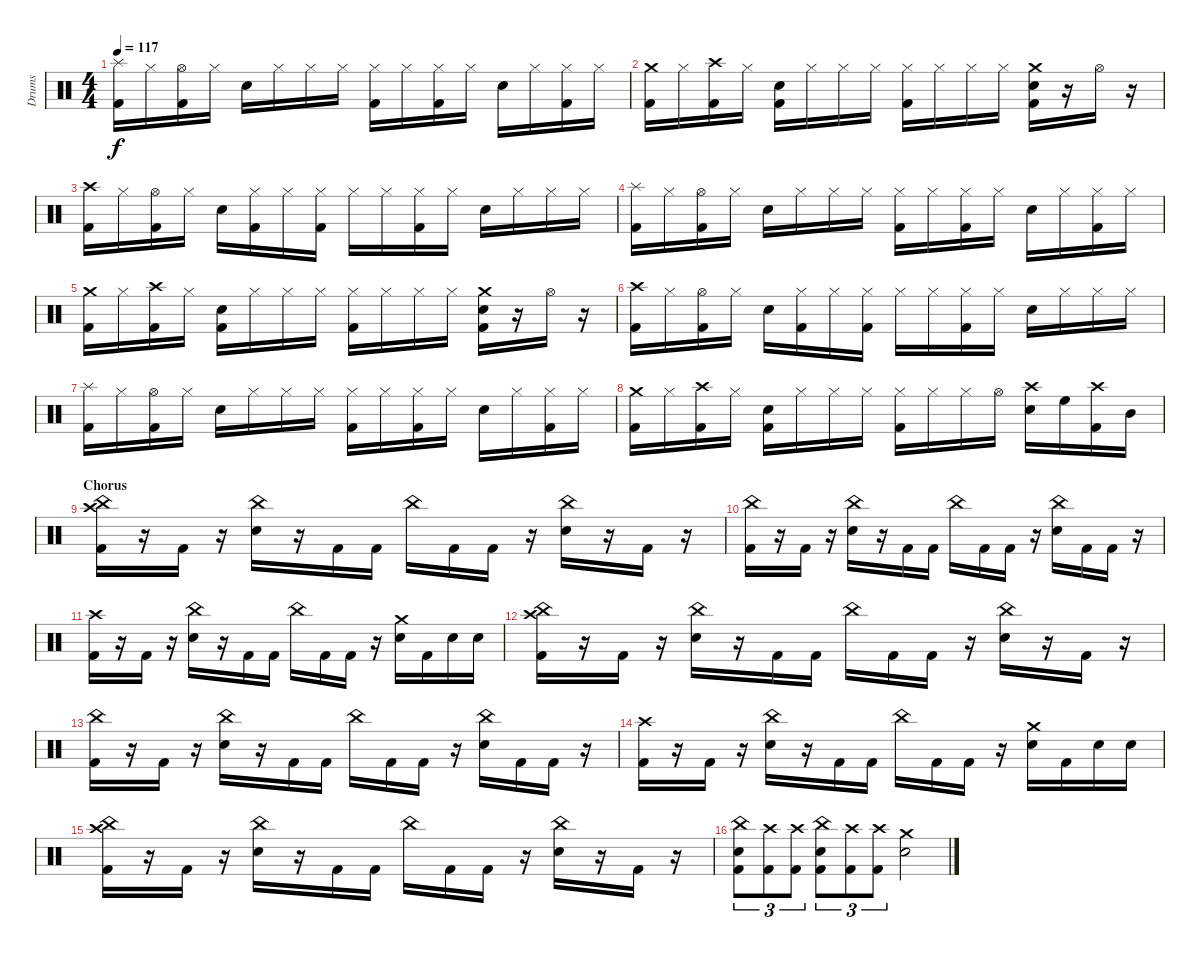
\track ("Drums" "Drums") {instrument percussion}
\staff {score}
\articulation defaults
\ts (4 4)
\tempo 117
\clef neutral
\ks c
("Splash (hit)" "Kick (hit) 2").16{dy f} "Hi-Hat (closed)".16 ("Hi-Hat (open)" "Kick (hit) 2").16 "Hi-Hat (closed)".16 "Electric Snare (hit)".16 "Hi-Hat (closed)".16 "Hi-Hat (closed)".16 "Hi-Hat (closed)".16 ("Hi-Hat (closed)" "Kick (hit) 2").16 "Hi-Hat (closed)".16 ("Hi-Hat (closed)" "Kick (hit) 2").16 "Hi-Hat (closed)".16 "Electric Snare (hit)".16 "Hi-Hat (closed)".16 ("Hi-Hat (closed)" "Kick (hit) 2").16 "Hi-Hat (closed)".16 |
("Crash medium (hit)" "Kick (hit) 2").16 "Hi-Hat (closed)".16 ("Crash high (hit)" "Kick (hit) 2").16 "Hi-Hat (closed)".16 ("Electric Snare (hit)" "Kick (hit) 2").16 "Hi-Hat (closed)".16 "Hi-Hat (closed)".16 "Hi-Hat (closed)".16 ("Hi-Hat (closed)" "Kick (hit) 2").16 "Hi-Hat (closed)".16 "Hi-Hat (closed)".16 "Hi-Hat (closed)".16 ("Crash medium (hit)" "Electric Snare (hit)" "Kick (hit) 2").16 r.16 "Hi-Hat (open)".16 r.16 |
("Crash high (hit)" "Kick (hit) 2").16 "Hi-Hat (closed)".16 ("Hi-Hat (open)" "Kick (hit) 2").16 "Hi-Hat (closed)".16 "Electric Snare (hit)".16 ("Hi-Hat (closed)" "Kick (hit) 2").16 "Hi-Hat (closed)".16 ("Hi-Hat (closed)" "Kick (hit) 2").16 "Hi-Hat (closed)".16 "Hi-Hat (closed)".16 ("Hi-Hat (closed)" "Kick (hit) 2").16 "Hi-Hat (closed)".16 "Electric Snare (hit)".16 "Hi-Hat (closed)".16 "Hi-Hat (closed)".16 "Hi-Hat (closed)".16 |
("Splash (hit)" "Kick (hit) 2").16 "Hi-Hat (closed)".16 ("Hi-Hat (open)" "Kick (hit) 2").16 "Hi-Hat (closed)".16 "Electric Snare (hit)".16 "Hi-Hat (closed)".16 "Hi-Hat (closed)".16 "Hi-Hat (closed)".16 ("Hi-Hat (closed)" "Kick (hit) 2").16 "Hi-Hat (closed)".16 ("Hi-Hat (closed)" "Kick (hit) 2").16 "Hi-Hat (closed)".16 "Electric Snare (hit)".16 "Hi-Hat (closed)".16 ("Hi-Hat (closed)" "Kick (hit) 2").16 "Hi-Hat (closed)".16 |
("Crash medium (hit)" "Kick (hit) 2").16 "Hi-Hat (closed)".16 ("Crash high (hit)" "Kick (hit) 2").16 "Hi-Hat (closed)".16 ("Electric Snare (hit)" "Kick (hit) 2").16 "Hi-Hat (closed)".16 "Hi-Hat (closed)".16 "Hi-Hat (closed)".16 ("Hi-Hat (closed)" "Kick (hit) 2").16 "Hi-Hat (closed)".16 "Hi-Hat (closed)".16 "Hi-Hat (closed)".16 ("Crash medium (hit)" "Electric Snare (hit)" "Kick (hit) 2").16 r.16 "Hi-Hat (open)".16 r.16 |
("Crash high (hit)" "Kick (hit) 2").16 "Hi-Hat (closed)".16 ("Hi-Hat (open)" "Kick (hit) 2").16 "Hi-Hat (closed)".16 "Electric Snare (hit)".16 ("Hi-Hat (closed)" "Kick (hit) 2").16 "Hi-Hat (closed)".16 ("Hi-Hat (closed)" "Kick (hit) 2").16 "Hi-Hat (closed)".16 "Hi-Hat (closed)".16 ("Hi-Hat (closed)" "Kick (hit) 2").16 "Hi-Hat (closed)".16 "Electric Snare (hit)".16 "Hi-Hat (closed)".16 "Hi-Hat (closed)".16 "Hi-Hat (closed)".16 |
("Splash (hit)" "Kick (hit) 2").16 "Hi-Hat (closed)".16 ("Hi-Hat (open)" "Kick (hit) 2").16 "Hi-Hat (closed)".16 "Electric Snare (hit)".16 "Hi-Hat (closed)".16 "Hi-Hat (closed)".16 "Hi-Hat (closed)".16 ("Hi-Hat (closed)" "Kick (hit) 2").16 "Hi-Hat (closed)".16 ("Hi-Hat (closed)" "Kick (hit) 2").16 "Hi-Hat (closed)".16 "Electric Snare (hit)".16 "Hi-Hat (closed)".16 ("Hi-Hat (closed)" "Kick (hit) 2").16 "Hi-Hat (closed)".16 |
("Crash medium (hit)" "Kick (hit) 2").16 "Hi-Hat (closed)".16 ("Crash high (hit)" "Kick (hit) 2").16 "Hi-Hat (closed)".16 ("Electric Snare (hit)" "Kick (hit) 2").16 "Hi-Hat (closed)".16 "Hi-Hat (closed)".16 "Hi-Hat (closed)".16 ("Hi-Hat (closed)" "Kick (hit) 2").16 "Hi-Hat (closed)".16 "Hi-Hat (closed)".16 "Hi-Hat (open)".16 ("Crash high (hit)" "Electric Snare (hit)").16 "High Floor Tom (hit)".16 ("Crash high (hit)" "Kick (hit) 2").16 "Mid Tom (hit)".16 |
\section ("" "Chorus")
("China (hit)" "Crash high (hit)" "Kick (hit) 2").16 r.16 "Kick (hit) 2".16 r.16 ("China (hit)" "Electric Snare (hit)").16 r.16 "Kick (hit) 2".16 "Kick (hit) 2".16 "China (hit)".16 "Kick (hit) 2".16 "Kick (hit) 2".16 r.16 ("China (hit)" "Electric Snare (hit)").16 r.16 "Kick (hit) 2".16 r.16 |
("China (hit)" "Kick (hit) 2").16 r.16 "Kick (hit) 2".16 r.16 ("China (hit)" "Electric Snare (hit)").16 r.16 "Kick (hit) 2".16 "Kick (hit) 2".16 "China (hit)".16 "Kick (hit) 2".16 "Kick (hit) 2".16 r.16 ("China (hit)" "Electric Snare (hit)").16 "Kick (hit) 2".16 "Kick (hit) 2".16 r.16 |
("Crash high (hit)" "Kick (hit) 2").16 r.16 "Kick (hit) 2".16 r.16 ("China (hit)" "Electric Snare (hit)").16 r.16 "Kick (hit) 2".16 "Kick (hit) 2".16 "China (hit)".16 "Kick (hit) 2".16 "Kick (hit) 2".16 r.16 ("Crash medium (hit)" "Electric Snare (hit)").16 "Kick (hit) 2".16 "Electric Snare (hit)".16 "Electric Snare (hit)".16 |
("China (hit)" "Crash high (hit)" "Kick (hit) 2").16 r.16 "Kick (hit) 2".16 r.16 ("China (hit)" "Electric Snare (hit)").16 r.16 "Kick (hit) 2".16 "Kick (hit) 2".16 "China (hit)".16 "Kick (hit) 2".16 "Kick (hit) 2".16 r.16 ("China (hit)" "Electric Snare (hit)").16 r.16 "Kick (hit) 2".16 r.16 |
("China (hit)" "Kick (hit) 2").16 r.16 "Kick (hit) 2".16 r.16 ("China (hit)" "Electric Snare (hit)").16 r.16 "Kick (hit) 2".16 "Kick (hit) 2".16 "China (hit)".16 "Kick (hit) 2".16 "Kick (hit) 2".16 r.16 ("China (hit)" "Electric Snare (hit)").16 "Kick (hit) 2".16 "Kick (hit) 2".16 r.16 |
("Crash high (hit)" "Kick (hit) 2").16 r.16 "Kick (hit) 2".16 r.16 ("China (hit)" "Electric Snare (hit)").16 r.16 "Kick (hit) 2".16 "Kick (hit) 2".16 "China (hit)".16 "Kick (hit) 2".16 "Kick (hit) 2".16 r.16 ("Crash medium (hit)" "Electric Snare (hit)").16 "Kick (hit) 2".16 "Electric Snare (hit)".16 "Electric Snare (hit)".16 |
("China (hit)" "Crash high (hit)" "Kick (hit) 2").16 r.16 "Kick (hit) 2".16 r.16 ("China (hit)" "Electric Snare (hit)").16 r.16 "Kick (hit) 2".16 "Kick (hit) 2".16 "China (hit)".16 "Kick (hit) 2".16 "Kick (hit) 2".16 r.16 ("China (hit)" "Electric Snare (hit)").16 r.16 "Kick (hit) 2".16 r.16 |
("China (hit)" "Electric Snare (hit)" "Kick (hit) 2").8{tu (3 2)} ("Crash high (hit)" "Kick (hit) 2").8{tu (3 2)} ("Crash high (hit)" "Kick (hit) 2").8{tu (3 2)} ("China (hit)" "Electric Snare (hit)" "Kick (hit) 2").8{tu (3 2)} ("Crash high (hit)" "Kick (hit) 2").8{tu (3 2)} ("Crash high (hit)" "Kick (hit) 2").8{tu (3 2)} ("Crash medium (hit)" "Electric Snare (hit)").2
